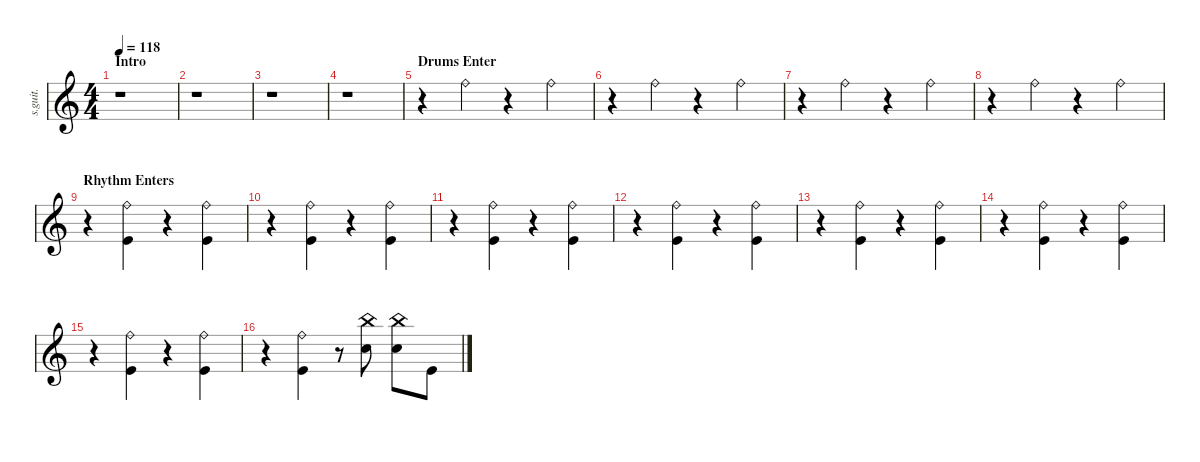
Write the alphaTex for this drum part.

\defaultSystemsLayout 4
\hideDynamics
\bracketExtendMode nobrackets
\track ("Drums [Arin Ilejay]" "s.guit.") {instrument percussion}
\staff {score}
\articulation defaults
\ts (4 4)
\beaming (8 2 2 2 2)
\section ("" "Intro")
\tempo 118
\clef g2
\ks c
r.1{dy f} |
r.1 |
r.1 |
r.1 |
\section ("" "Drums Enter")
r.4 "Ride (bell)".4{lyrics (0 "") lyrics (1 "") lyrics (2 "") lyrics (3 "") lyrics (4 "")} r.4 "Ride (bell)".4{lyrics (0 "") lyrics (1 "") lyrics (2 "") lyrics (3 "") lyrics (4 "")} |
r.4 "Ride (bell)".4{lyrics (0 "") lyrics (1 "") lyrics (2 "") lyrics (3 "") lyrics (4 "")} r.4 "Ride (bell)".4{lyrics (0 "") lyrics (1 "") lyrics (2 "") lyrics (3 "") lyrics (4 "")} |
r.4 "Ride (bell)".4{lyrics (0 "") lyrics (1 "") lyrics (2 "") lyrics (3 "") lyrics (4 "")} r.4 "Ride (bell)".4{lyrics (0 "") lyrics (1 "") lyrics (2 "") lyrics (3 "") lyrics (4 "")} |
r.4 "Ride (bell)".4{lyrics (0 "") lyrics (1 "") lyrics (2 "") lyrics (3 "") lyrics (4 "")} r.4 "Ride (bell)".4{lyrics (0 "") lyrics (1 "") lyrics (2 "") lyrics (3 "") lyrics (4 "")} |
\section ("" "Rhythm Enters")
r.4 ("Ride (bell)" "Kick (hit)").4{lyrics (0 "") lyrics (1 "") lyrics (2 "") lyrics (3 "") lyrics (4 "")} r.4 ("Ride (bell)" "Kick (hit)").4{lyrics (0 "") lyrics (1 "") lyrics (2 "") lyrics (3 "") lyrics (4 "")} |
r.4 ("Ride (bell)" "Kick (hit)").4{lyrics (0 "") lyrics (1 "") lyrics (2 "") lyrics (3 "") lyrics (4 "")} r.4 ("Ride (bell)" "Kick (hit)").4{lyrics (0 "") lyrics (1 "") lyrics (2 "") lyrics (3 "") lyrics (4 "")} |
r.4 ("Ride (bell)" "Kick (hit)").4{lyrics (0 "") lyrics (1 "") lyrics (2 "") lyrics (3 "") lyrics (4 "")} r.4 ("Ride (bell)" "Kick (hit)").4{lyrics (0 "") lyrics (1 "") lyrics (2 "") lyrics (3 "") lyrics (4 "")} |
r.4 ("Ride (bell)" "Kick (hit)").4{lyrics (0 "") lyrics (1 "") lyrics (2 "") lyrics (3 "") lyrics (4 "")} r.4 ("Ride (bell)" "Kick (hit)").4{lyrics (0 "") lyrics (1 "") lyrics (2 "") lyrics (3 "") lyrics (4 "")} |
r.4 ("Ride (bell)" "Kick (hit)").4{lyrics (0 "") lyrics (1 "") lyrics (2 "") lyrics (3 "") lyrics (4 "")} r.4 ("Ride (bell)" "Kick (hit)").4{lyrics (0 "") lyrics (1 "") lyrics (2 "") lyrics (3 "") lyrics (4 "")} |
r.4 ("Ride (bell)" "Kick (hit)").4{lyrics (0 "") lyrics (1 "") lyrics (2 "") lyrics (3 "") lyrics (4 "")} r.4 ("Ride (bell)" "Kick (hit)").4{lyrics (0 "") lyrics (1 "") lyrics (2 "") lyrics (3 "") lyrics (4 "")} |
r.4 ("Ride (bell)" "Kick (hit)").4{lyrics (0 "") lyrics (1 "") lyrics (2 "") lyrics (3 "") lyrics (4 "")} r.4 ("Ride (bell)" "Kick (hit)").4{lyrics (0 "") lyrics (1 "") lyrics (2 "") lyrics (3 "") lyrics (4 "")} |
r.4 ("Ride (bell)" "Kick (hit)").4{lyrics (0 "") lyrics (1 "") lyrics (2 "") lyrics (3 "") lyrics (4 "")} r.8 ("China (hit)" "Snare (hit) 2").8{lyrics (0 "") lyrics (1 "") lyrics (2 "") lyrics (3 "") lyrics (4 "")} ("China (hit)" "Snare (hit) 2").8{lyrics (0 "") lyrics (1 "") lyrics (2 "") lyrics (3 "") lyrics (4 "")} "Kick (hit)".8{lyrics (0 "") lyrics (1 "") lyrics (2 "") lyrics (3 "") lyrics (4 "")}
